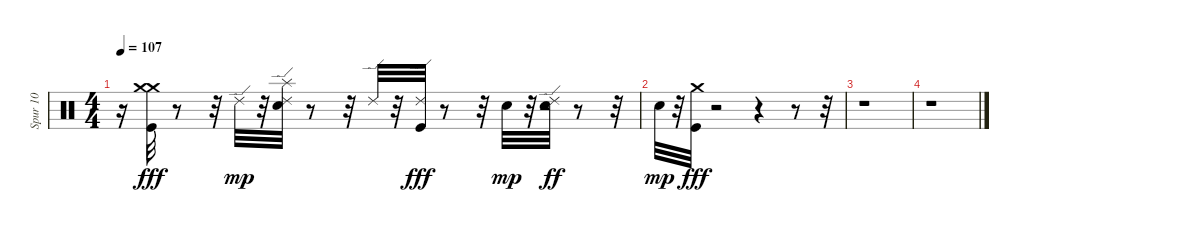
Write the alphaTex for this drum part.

\track ("Spur 10" "Spur 10") {instrument percussion}
\staff {score}
\articulation defaults
\ts (4 4)
\tempo 107
\clef neutral
\ks c
r.16{dy mp} ("Crash medium (hit)" "Crash medium (hit)" "Kick (hit)").32{dy fff} r.8 r.32 "Ride (edge) 2".32{dy mp} r.32 ("Ride (edge) 2" "Snare (hit) 2" "Splash (hit)").32 r.8 r.32 "Ride (edge) 2".32 r.32 ("Ride (edge) 2" "Kick (hit)").32{dy fff} r.8 r.32 "Snare (hit) 2".32{dy mp} r.32 ("Ride (edge) 2" "Snare (hit) 2" "Tambourine (hit)").32{dy ff} r.8 r.32 |
"Snare (hit) 2".32{dy mp} r.32 ("Crash medium (hit)" "Kick (hit)").32{dy fff} r.2 r.4 r.8 r.32 |
r.1 |
r.1
